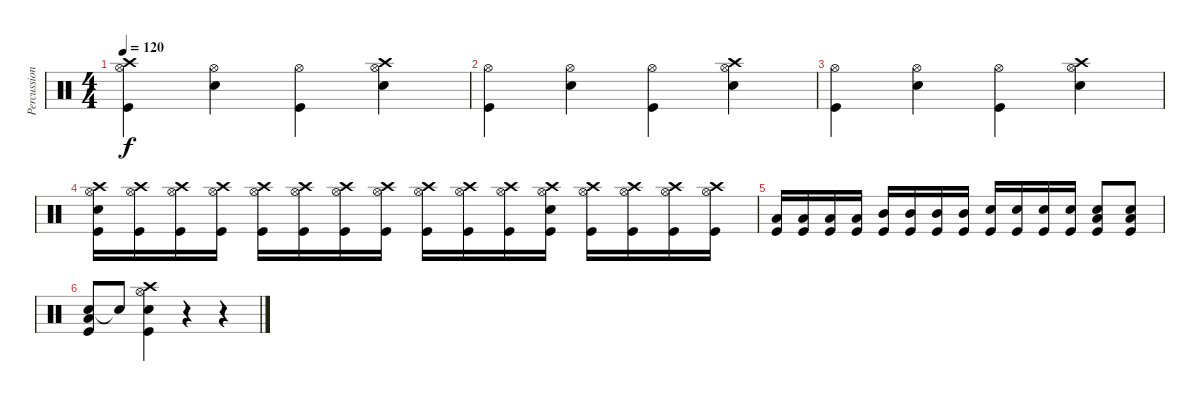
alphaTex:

\track ("Percussion" "Percussion") {instrument percussion}
\staff {score}
\articulation defaults
\ts (4 4)
\tempo 120
\clef neutral
\ks c
("Crash high (hit)" "Hi-Hat (open)" "Kick (hit)").4{dy f} ("Hi-Hat (open)" "Snare (hit) 2").4 ("Hi-Hat (open)" "Kick (hit)").4 ("Crash high (hit)" "Hi-Hat (open)" "Snare (hit) 2").4 |
("Hi-Hat (open)" "Kick (hit)").4 ("Hi-Hat (open)" "Snare (hit) 2").4 ("Hi-Hat (open)" "Kick (hit)").4 ("Crash high (hit)" "Hi-Hat (open)" "Snare (hit) 2").4 |
("Hi-Hat (open)" "Kick (hit)").4 ("Hi-Hat (open)" "Snare (hit) 2").4 ("Hi-Hat (open)" "Kick (hit)").4 ("Crash high (hit)" "Hi-Hat (open)" "Snare (hit) 2").4 |
("Crash high (hit)" "Hi-Hat (open)" "Snare (hit) 2" "Kick (hit)").16 ("Crash high (hit)" "Hi-Hat (open)" "Kick (hit)").16 ("Crash high (hit)" "Hi-Hat (open)" "Kick (hit)").16 ("Crash high (hit)" "Hi-Hat (open)" "Kick (hit)").16 ("Crash high (hit)" "Hi-Hat (open)" "Kick (hit)").16 ("Crash high (hit)" "Hi-Hat (open)" "Kick (hit)").16 ("Crash high (hit)" "Hi-Hat (open)" "Kick (hit)").16 ("Crash high (hit)" "Hi-Hat (open)" "Kick (hit)").16 ("Crash high (hit)" "Hi-Hat (open)" "Kick (hit)").16 ("Crash high (hit)" "Hi-Hat (open)" "Kick (hit)").16 ("Crash high (hit)" "Hi-Hat (open)" "Kick (hit)").16 ("Crash high (hit)" "Hi-Hat (open)" "Snare (hit) 2" "Kick (hit)").16 ("Crash high (hit)" "Hi-Hat (open)" "Kick (hit)").16 ("Crash high (hit)" "Hi-Hat (open)" "Kick (hit)").16 ("Crash high (hit)" "Hi-Hat (open)" "Kick (hit)").16 ("Crash high (hit)" "Hi-Hat (open)" "Kick (hit)").16 |
("Low Tom (hit)" "Kick (hit)").16 ("Low Tom (hit)" "Kick (hit)").16 ("Low Tom (hit)" "Kick (hit)").16 ("Low Tom (hit)" "Kick (hit)").16 ("Mid Tom (hit)" "Kick (hit)").16 ("Mid Tom (hit)" "Kick (hit)").16 ("Mid Tom (hit)" "Kick (hit)").16 ("Mid Tom (hit)" "Kick (hit)").16 ("Snare (hit) 2" "Kick (hit)").16 ("Snare (hit) 2" "Kick (hit)").16 ("Snare (hit) 2" "Kick (hit)").16 ("Snare (hit) 2" "Kick (hit)").16 ("Snare (hit) 2" "Low Tom (hit)" "Kick (hit)").8 ("Snare (hit) 2" "Low Tom (hit)" "Kick (hit)").8 |
("Snare (hit) 2" "Low Tom (hit)" "Kick (hit)").8 "Snare (hit)"{t}.8 ("Crash high (hit)" "Hi-Hat (open)" "Snare (hit) 2" "Kick (hit)").4 r.4 r.4
